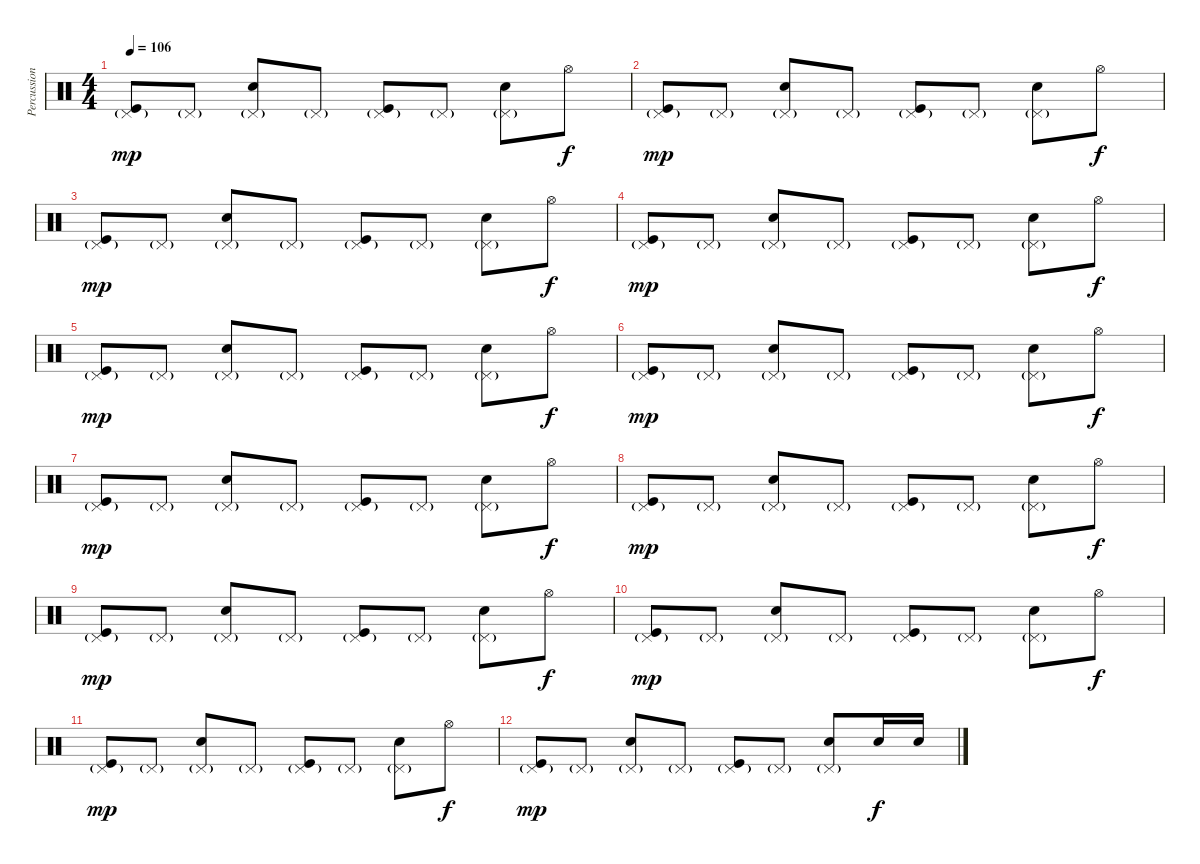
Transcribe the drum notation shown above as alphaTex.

\track ("Percussions" "Percussion") {instrument percussion}
\staff {score}
\articulation defaults
\ts (4 4)
\tempo 106
\clef neutral
\ks c
("Pedal Hi-Hat (hit)"{g} "Kick (hit)").8{dy mp} "Pedal Hi-Hat (hit)"{g}.8 ("Pedal Hi-Hat (hit)"{g} "Electric Snare (hit)").8 "Pedal Hi-Hat (hit)"{g}.8 ("Pedal Hi-Hat (hit)"{g} "Kick (hit)").8 "Pedal Hi-Hat (hit)"{g}.8 ("Pedal Hi-Hat (hit)"{g} "Electric Snare (hit)").8 "Hi-Hat (open)".8{dy f} |
("Pedal Hi-Hat (hit)"{g} "Kick (hit)").8{dy mp} "Pedal Hi-Hat (hit)"{g}.8 ("Pedal Hi-Hat (hit)"{g} "Electric Snare (hit)").8 "Pedal Hi-Hat (hit)"{g}.8 ("Pedal Hi-Hat (hit)"{g} "Kick (hit)").8 "Pedal Hi-Hat (hit)"{g}.8 ("Pedal Hi-Hat (hit)"{g} "Electric Snare (hit)").8 "Hi-Hat (open)".8{dy f} |
("Pedal Hi-Hat (hit)"{g} "Kick (hit)").8{dy mp} "Pedal Hi-Hat (hit)"{g}.8 ("Pedal Hi-Hat (hit)"{g} "Electric Snare (hit)").8 "Pedal Hi-Hat (hit)"{g}.8 ("Pedal Hi-Hat (hit)"{g} "Kick (hit)").8 "Pedal Hi-Hat (hit)"{g}.8 ("Pedal Hi-Hat (hit)"{g} "Electric Snare (hit)").8 "Hi-Hat (open)".8{dy f} |
("Pedal Hi-Hat (hit)"{g} "Kick (hit)").8{dy mp} "Pedal Hi-Hat (hit)"{g}.8 ("Pedal Hi-Hat (hit)"{g} "Electric Snare (hit)").8 "Pedal Hi-Hat (hit)"{g}.8 ("Pedal Hi-Hat (hit)"{g} "Kick (hit)").8 "Pedal Hi-Hat (hit)"{g}.8 ("Pedal Hi-Hat (hit)"{g} "Electric Snare (hit)").8 "Hi-Hat (open)".8{dy f} |
("Pedal Hi-Hat (hit)"{g} "Kick (hit)").8{dy mp} "Pedal Hi-Hat (hit)"{g}.8 ("Pedal Hi-Hat (hit)"{g} "Electric Snare (hit)").8 "Pedal Hi-Hat (hit)"{g}.8 ("Pedal Hi-Hat (hit)"{g} "Kick (hit)").8 "Pedal Hi-Hat (hit)"{g}.8 ("Pedal Hi-Hat (hit)"{g} "Electric Snare (hit)").8 "Hi-Hat (open)".8{dy f} |
("Pedal Hi-Hat (hit)"{g} "Kick (hit)").8{dy mp} "Pedal Hi-Hat (hit)"{g}.8 ("Pedal Hi-Hat (hit)"{g} "Electric Snare (hit)").8 "Pedal Hi-Hat (hit)"{g}.8 ("Pedal Hi-Hat (hit)"{g} "Kick (hit)").8 "Pedal Hi-Hat (hit)"{g}.8 ("Pedal Hi-Hat (hit)"{g} "Electric Snare (hit)").8 "Hi-Hat (open)".8{dy f} |
("Pedal Hi-Hat (hit)"{g} "Kick (hit)").8{dy mp} "Pedal Hi-Hat (hit)"{g}.8 ("Pedal Hi-Hat (hit)"{g} "Electric Snare (hit)").8 "Pedal Hi-Hat (hit)"{g}.8 ("Pedal Hi-Hat (hit)"{g} "Kick (hit)").8 "Pedal Hi-Hat (hit)"{g}.8 ("Pedal Hi-Hat (hit)"{g} "Electric Snare (hit)").8 "Hi-Hat (open)".8{dy f} |
("Pedal Hi-Hat (hit)"{g} "Kick (hit)").8{dy mp} "Pedal Hi-Hat (hit)"{g}.8 ("Pedal Hi-Hat (hit)"{g} "Electric Snare (hit)").8 "Pedal Hi-Hat (hit)"{g}.8 ("Pedal Hi-Hat (hit)"{g} "Kick (hit)").8 "Pedal Hi-Hat (hit)"{g}.8 ("Pedal Hi-Hat (hit)"{g} "Electric Snare (hit)").8 "Hi-Hat (open)".8{dy f} |
("Pedal Hi-Hat (hit)"{g} "Kick (hit)").8{dy mp} "Pedal Hi-Hat (hit)"{g}.8 ("Pedal Hi-Hat (hit)"{g} "Electric Snare (hit)").8 "Pedal Hi-Hat (hit)"{g}.8 ("Pedal Hi-Hat (hit)"{g} "Kick (hit)").8 "Pedal Hi-Hat (hit)"{g}.8 ("Pedal Hi-Hat (hit)"{g} "Electric Snare (hit)").8 "Hi-Hat (open)".8{dy f} |
("Pedal Hi-Hat (hit)"{g} "Kick (hit)").8{dy mp} "Pedal Hi-Hat (hit)"{g}.8 ("Pedal Hi-Hat (hit)"{g} "Electric Snare (hit)").8 "Pedal Hi-Hat (hit)"{g}.8 ("Pedal Hi-Hat (hit)"{g} "Kick (hit)").8 "Pedal Hi-Hat (hit)"{g}.8 ("Pedal Hi-Hat (hit)"{g} "Electric Snare (hit)").8 "Hi-Hat (open)".8{dy f} |
("Pedal Hi-Hat (hit)"{g} "Kick (hit)").8{dy mp} "Pedal Hi-Hat (hit)"{g}.8 ("Pedal Hi-Hat (hit)"{g} "Electric Snare (hit)").8 "Pedal Hi-Hat (hit)"{g}.8 ("Pedal Hi-Hat (hit)"{g} "Kick (hit)").8 "Pedal Hi-Hat (hit)"{g}.8 ("Pedal Hi-Hat (hit)"{g} "Electric Snare (hit)").8 "Hi-Hat (open)".8{dy f} |
("Pedal Hi-Hat (hit)"{g} "Kick (hit)").8{dy mp} "Pedal Hi-Hat (hit)"{g}.8 ("Pedal Hi-Hat (hit)"{g} "Electric Snare (hit)").8 "Pedal Hi-Hat (hit)"{g}.8 ("Pedal Hi-Hat (hit)"{g} "Kick (hit)").8 "Pedal Hi-Hat (hit)"{g}.8 ("Pedal Hi-Hat (hit)"{g} "Electric Snare (hit)").8 "Electric Snare (hit)".16{dy f} "Electric Snare (hit)".16
